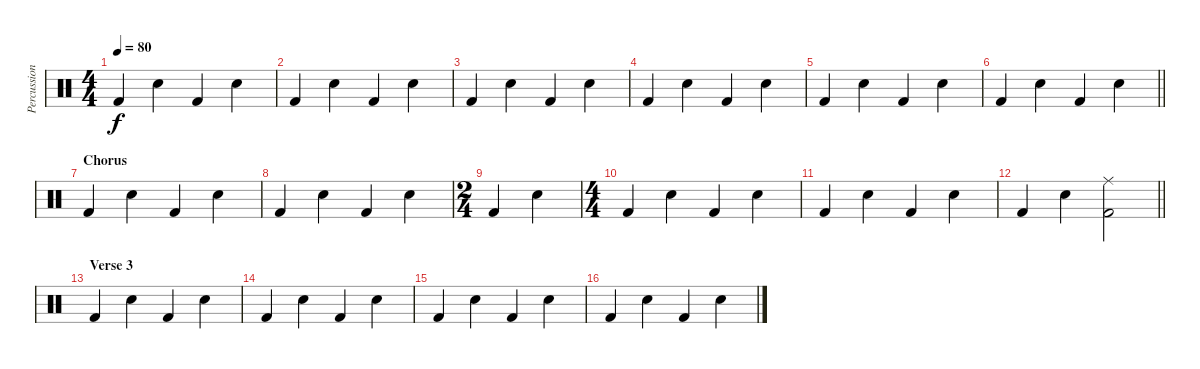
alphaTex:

\track ("Percussion" "Percussion") {instrument percussion}
\staff {score}
\articulation defaults
\ts (4 4)
\tempo 80
\clef neutral
\ks c "Kick (hit) 2".4{dy f} "Snare (hit) 2".4 "Kick (hit) 2".4 "Snare (hit) 2".4
|
"Kick (hit) 2".4 "Snare (hit) 2".4 "Kick (hit) 2".4 "Snare (hit) 2".4 |
"Kick (hit) 2".4 "Snare (hit) 2".4 "Kick (hit) 2".4 "Snare (hit) 2".4 |
"Kick (hit) 2".4 "Snare (hit) 2".4 "Kick (hit) 2".4 "Snare (hit) 2".4 |
"Kick (hit) 2".4 "Snare (hit) 2".4 "Kick (hit) 2".4 "Snare (hit) 2".4 |
\barLineRight lightlight "Kick (hit) 2".4 "Snare (hit) 2".4 "Kick (hit) 2".4 "Snare (hit) 2".4
|
\section ("" "Chorus")
"Kick (hit) 2".4 "Snare (hit) 2".4 "Kick (hit) 2".4 "Snare (hit) 2".4 |
"Kick (hit) 2".4 "Snare (hit) 2".4 "Kick (hit) 2".4 "Snare (hit) 2".4 |
\ts (2 4)
"Kick (hit) 2".4 "Snare (hit) 2".4 |
\ts (4 4)
"Kick (hit) 2".4 "Snare (hit) 2".4 "Kick (hit) 2".4 "Snare (hit) 2".4 |
"Kick (hit) 2".4 "Snare (hit) 2".4 "Kick (hit) 2".4 "Snare (hit) 2".4 |
\barLineRight lightlight "Kick (hit) 2".4 "Snare (hit) 2".4
("Ride (middle)" "Kick (hit) 2").2 |
\section ("" "Verse 3")
"Kick (hit) 2".4 "Snare (hit) 2".4 "Kick (hit) 2".4 "Snare (hit) 2".4 |
"Kick (hit) 2".4 "Snare (hit) 2".4 "Kick (hit) 2".4 "Snare (hit) 2".4 |
"Kick (hit) 2".4 "Snare (hit) 2".4 "Kick (hit) 2".4 "Snare (hit) 2".4 |
"Kick (hit) 2".4 "Snare (hit) 2".4 "Kick (hit) 2".4 "Snare (hit) 2".4
